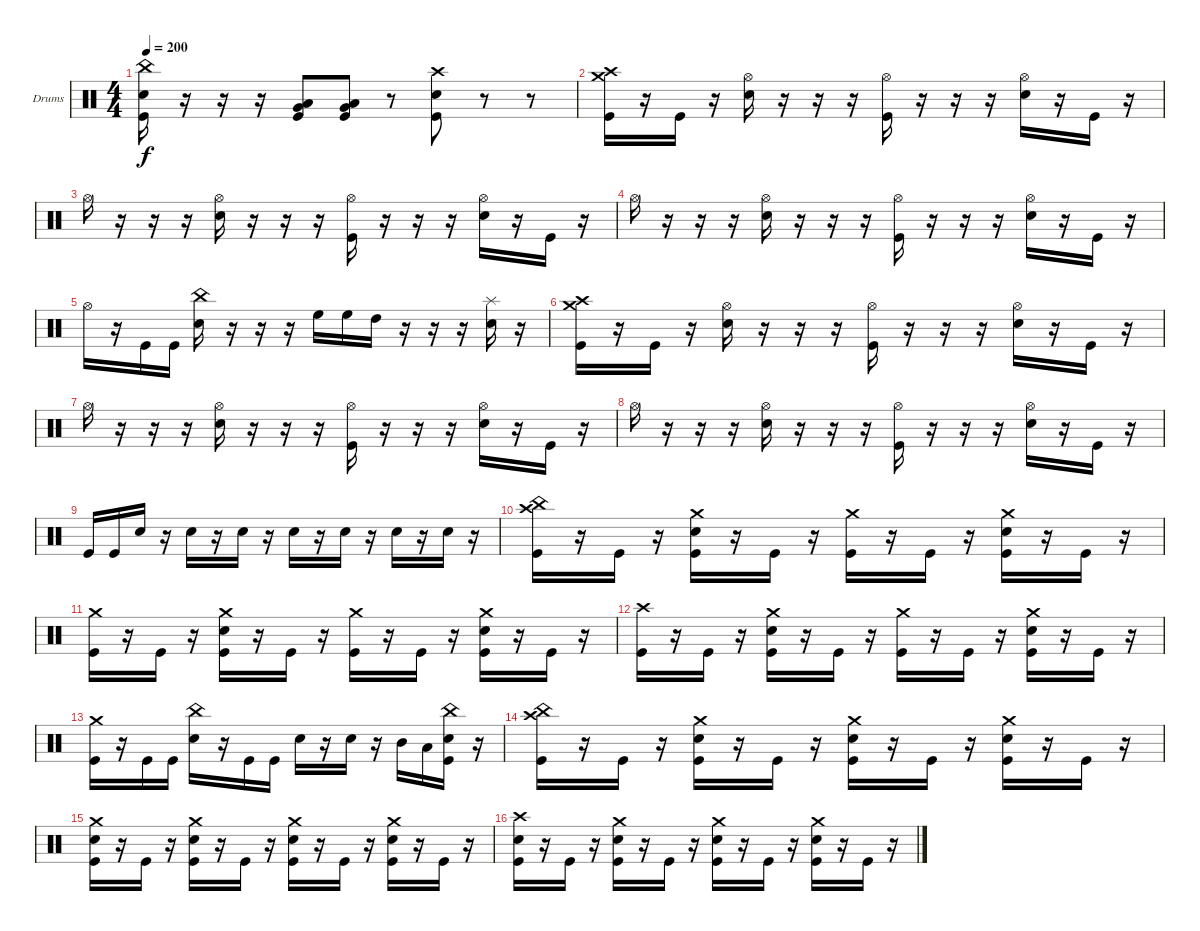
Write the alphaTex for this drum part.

\defaultSystemsLayout 4
\bracketExtendMode groupsimilarinstruments
\firstSystemTrackNameOrientation horizontal
\otherSystemsTrackNameOrientation horizontal
\track ("Drumkit" "Drums") {instrument percussion}
\staff {score}
\articulation defaults
\ts (4 4)
\tempo 200
\clef neutral
\ks c
("Kick (hit)" "Snare (hit) 2" "China (hit)").16{dy f} r.16 r.16 r.16 ("Kick (hit)" "Very Low Tom (hit)" "Low Tom (hit)").8 ("Kick (hit)" "Very Low Tom (hit)" "Low Tom (hit)").8 r.8 ("Kick (hit)" "Snare (hit) 2" "Crash high (hit)").8 r.8 r.8 |
("Kick (hit)" "Crash medium (hit)" "Crash high (hit)").16 r.16 "Kick (hit)".16 r.16 ("Snare (hit) 2" "Hi-Hat (open)").16 r.16 r.16 r.16 ("Kick (hit)" "Hi-Hat (open)").16 r.16 r.16 r.16 ("Snare (hit) 2" "Hi-Hat (open)").16 r.16 "Kick (hit)".16 r.16 |
"Hi-Hat (open)".16 r.16 r.16 r.16 ("Snare (hit) 2" "Hi-Hat (open)").16 r.16 r.16 r.16 ("Kick (hit)" "Hi-Hat (open)").16 r.16 r.16 r.16 ("Snare (hit) 2" "Hi-Hat (open)").16 r.16 "Kick (hit)".16 r.16 |
"Hi-Hat (open)".16 r.16 r.16 r.16 ("Snare (hit) 2" "Hi-Hat (open)").16 r.16 r.16 r.16 ("Kick (hit)" "Hi-Hat (open)").16 r.16 r.16 r.16 ("Snare (hit) 2" "Hi-Hat (open)").16 r.16 "Kick (hit)".16 r.16 |
"Hi-Hat (open)".16 r.16 "Kick (hit)".16 "Kick (hit)".16 ("Snare (hit) 2" "China (hit)").16 r.16 r.16 r.16 "High Floor Tom (hit)".16 "High Floor Tom (hit)".16 "High Tom (hit)".16 r.16 r.16 r.16 ("Snare (hit) 2" "Splash (hit)").16 r.16 |
("Kick (hit)" "Crash medium (hit)" "Crash high (hit)").16 r.16 "Kick (hit)".16 r.16 ("Snare (hit) 2" "Hi-Hat (open)").16 r.16 r.16 r.16 ("Kick (hit)" "Hi-Hat (open)").16 r.16 r.16 r.16 ("Snare (hit) 2" "Hi-Hat (open)").16 r.16 "Kick (hit)".16 r.16 |
"Hi-Hat (open)".16 r.16 r.16 r.16 ("Snare (hit) 2" "Hi-Hat (open)").16 r.16 r.16 r.16 ("Kick (hit)" "Hi-Hat (open)").16 r.16 r.16 r.16 ("Snare (hit) 2" "Hi-Hat (open)").16 r.16 "Kick (hit)".16 r.16 |
"Hi-Hat (open)".16 r.16 r.16 r.16 ("Snare (hit) 2" "Hi-Hat (open)").16 r.16 r.16 r.16 ("Kick (hit)" "Hi-Hat (open)").16 r.16 r.16 r.16 ("Snare (hit) 2" "Hi-Hat (open)").16 r.16 "Kick (hit)".16 r.16 |
"Kick (hit)".16 "Kick (hit)".16 "Snare (hit) 2".16 r.16 "Snare (hit) 2".16 r.16 "Snare (hit) 2".16 r.16 "Snare (hit) 2".16 r.16 "Snare (hit) 2".16 r.16 "Snare (hit) 2".16 r.16 "Snare (hit) 2".16 r.16 |
("Kick (hit)" "China (hit)" "Crash high (hit)").16 r.16 "Kick (hit)".16 r.16 ("Kick (hit)" "Snare (hit) 2" "Crash medium (hit)").16 r.16 "Kick (hit)".16 r.16 ("Kick (hit)" "Crash medium (hit)").16 r.16 "Kick (hit)".16 r.16 ("Kick (hit)" "Snare (hit) 2" "Crash medium (hit)").16 r.16 "Kick (hit)".16 r.16 |
("Kick (hit)" "Crash medium (hit)").16 r.16 "Kick (hit)".16 r.16 ("Kick (hit)" "Snare (hit) 2" "Crash medium (hit)").16 r.16 "Kick (hit)".16 r.16 ("Kick (hit)" "Crash medium (hit)").16 r.16 "Kick (hit)".16 r.16 ("Kick (hit)" "Snare (hit) 2" "Crash medium (hit)").16 r.16 "Kick (hit)".16 r.16 |
("Kick (hit)" "Crash high (hit)").16 r.16 "Kick (hit)".16 r.16 ("Kick (hit)" "Snare (hit) 2" "Crash medium (hit)").16 r.16 "Kick (hit)".16 r.16 ("Kick (hit)" "Crash medium (hit)").16 r.16 "Kick (hit)".16 r.16 ("Kick (hit)" "Snare (hit) 2" "Crash medium (hit)").16 r.16 "Kick (hit)".16 r.16 |
("Kick (hit)" "Crash medium (hit)").16 r.16 "Kick (hit)".16 "Kick (hit)".16 ("Snare (hit) 2" "China (hit)").16 r.16 "Kick (hit)".16 "Kick (hit)".16 "Snare (hit) 2".16 r.16 "Snare (hit) 2".16 r.16 "Mid Tom (hit)".16 "Low Tom (hit)".16 ("Kick (hit)" "Snare (hit) 2" "China (hit)").16 r.16 |
("Kick (hit)" "China (hit)" "Crash high (hit)").16 r.16 "Kick (hit)".16 r.16 ("Kick (hit)" "Snare (hit) 2" "Crash medium (hit)").16 r.16 "Kick (hit)".16 r.16 ("Kick (hit)" "Snare (hit) 2" "Crash medium (hit)").16 r.16 "Kick (hit)".16 r.16 ("Kick (hit)" "Snare (hit) 2" "Crash medium (hit)").16 r.16 "Kick (hit)".16 r.16 |
("Kick (hit)" "Snare (hit) 2" "Crash medium (hit)").16 r.16 "Kick (hit)".16 r.16 ("Kick (hit)" "Snare (hit) 2" "Crash medium (hit)").16 r.16 "Kick (hit)".16 r.16 ("Kick (hit)" "Snare (hit) 2" "Crash medium (hit)").16 r.16 "Kick (hit)".16 r.16 ("Kick (hit)" "Snare (hit) 2" "Crash medium (hit)").16 r.16 "Kick (hit)".16 r.16 |
("Kick (hit)" "Snare (hit) 2" "Crash high (hit)").16 r.16 "Kick (hit)".16 r.16 ("Kick (hit)" "Snare (hit) 2" "Crash medium (hit)").16 r.16 "Kick (hit)".16 r.16 ("Kick (hit)" "Snare (hit) 2" "Crash medium (hit)").16 r.16 "Kick (hit)".16 r.16 ("Kick (hit)" "Snare (hit) 2" "Crash medium (hit)").16 r.16 "Kick (hit)".16 r.16
